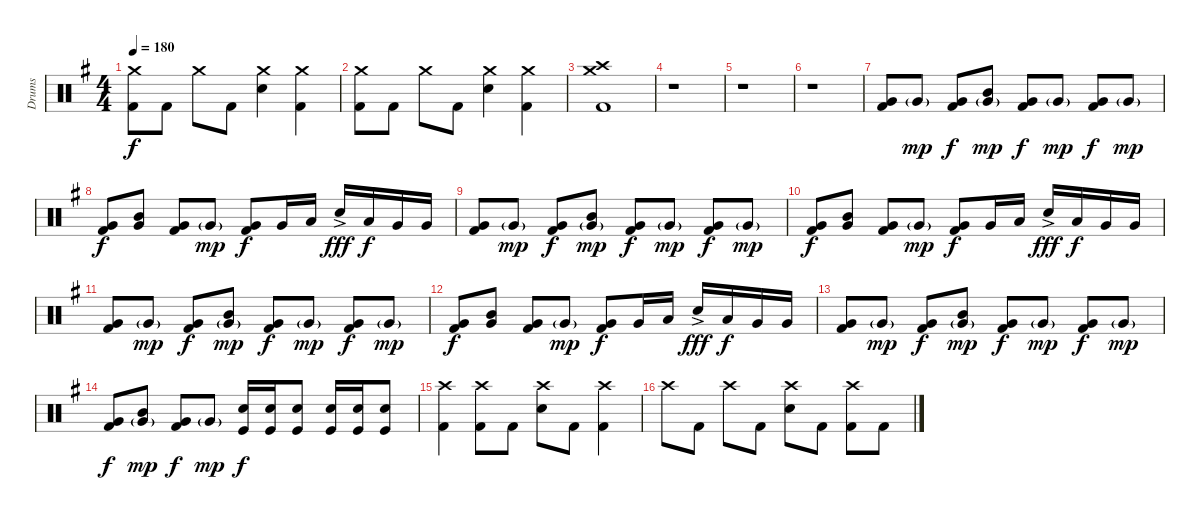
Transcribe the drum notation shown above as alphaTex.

\track ("Drums" "Drums") {instrument percussion}
\staff {score}
\articulation defaults
\ts (4 4)
\tempo 180
\clef neutral
\ks g
("Crash medium (hit)" "Kick (hit) 2").8{dy f} "Kick (hit) 2".8 "Crash medium (hit)".8 "Kick (hit) 2".8 ("Crash medium (hit)" "Electric Snare (hit)").4 ("Crash medium (hit)" "Kick (hit) 2").4 |
("Crash medium (hit)" "Kick (hit) 2").8 "Kick (hit) 2".8 "Crash medium (hit)".8 "Kick (hit) 2".8 ("Crash medium (hit)" "Electric Snare (hit)").4 ("Crash medium (hit)" "Kick (hit) 2").4 |
("Crash high (hit)" "Crash medium (hit)" "Kick (hit) 2").1 |
r.1 |
r.1 |
r.1 |
("Very Low Tom (hit)" "Kick (hit) 2").8 "Very Low Tom (hit)"{g}.8{dy mp} ("Very Low Tom (hit)" "Kick (hit) 2").8{dy f} ("Very Low Tom (hit)"{g} "Mid Tom (hit)").8{dy mp} ("Very Low Tom (hit)" "Kick (hit) 2").8{dy f} "Very Low Tom (hit)"{g}.8{dy mp} ("Very Low Tom (hit)" "Kick (hit) 2").8{dy f} "Very Low Tom (hit)"{g}.8{dy mp} |
("Very Low Tom (hit)" "Kick (hit) 2").8{dy f} ("Very Low Tom (hit)" "Mid Tom (hit)").8 ("Very Low Tom (hit)" "Kick (hit) 2").8 "Very Low Tom (hit)"{g}.8{dy mp} ("Very Low Tom (hit)" "Kick (hit) 2").8{dy f} "Very Low Tom (hit)".16 "Low Tom (hit)".16 "Electric Snare (hit)"{ac}.16{dy fff} "Low Tom (hit)".16{dy f} "Very Low Tom (hit)".16 "Very Low Tom (hit)".16 |
("Very Low Tom (hit)" "Kick (hit) 2").8 "Very Low Tom (hit)"{g}.8{dy mp} ("Very Low Tom (hit)" "Kick (hit) 2").8{dy f} ("Very Low Tom (hit)"{g} "Mid Tom (hit)").8{dy mp} ("Very Low Tom (hit)" "Kick (hit) 2").8{dy f} "Very Low Tom (hit)"{g}.8{dy mp} ("Very Low Tom (hit)" "Kick (hit) 2").8{dy f} "Very Low Tom (hit)"{g}.8{dy mp} |
("Very Low Tom (hit)" "Kick (hit) 2").8{dy f} ("Very Low Tom (hit)" "Mid Tom (hit)").8 ("Very Low Tom (hit)" "Kick (hit) 2").8 "Very Low Tom (hit)"{g}.8{dy mp} ("Very Low Tom (hit)" "Kick (hit) 2").8{dy f} "Very Low Tom (hit)".16 "Low Tom (hit)".16 "Electric Snare (hit)"{ac}.16{dy fff} "Low Tom (hit)".16{dy f} "Very Low Tom (hit)".16 "Very Low Tom (hit)".16 |
("Very Low Tom (hit)" "Kick (hit) 2").8 "Very Low Tom (hit)"{g}.8{dy mp} ("Very Low Tom (hit)" "Kick (hit) 2").8{dy f} ("Very Low Tom (hit)"{g} "Mid Tom (hit)").8{dy mp} ("Very Low Tom (hit)" "Kick (hit) 2").8{dy f} "Very Low Tom (hit)"{g}.8{dy mp} ("Very Low Tom (hit)" "Kick (hit) 2").8{dy f} "Very Low Tom (hit)"{g}.8{dy mp} |
("Very Low Tom (hit)" "Kick (hit) 2").8{dy f} ("Very Low Tom (hit)" "Mid Tom (hit)").8 ("Very Low Tom (hit)" "Kick (hit) 2").8 "Very Low Tom (hit)"{g}.8{dy mp} ("Very Low Tom (hit)" "Kick (hit) 2").8{dy f} "Very Low Tom (hit)".16 "Low Tom (hit)".16 "Electric Snare (hit)"{ac}.16{dy fff} "Low Tom (hit)".16{dy f} "Very Low Tom (hit)".16 "Very Low Tom (hit)".16 |
("Very Low Tom (hit)" "Kick (hit) 2").8 "Very Low Tom (hit)"{g}.8{dy mp} ("Very Low Tom (hit)" "Kick (hit) 2").8{dy f} ("Very Low Tom (hit)"{g} "Mid Tom (hit)").8{dy mp} ("Very Low Tom (hit)" "Kick (hit) 2").8{dy f} "Very Low Tom (hit)"{g}.8{dy mp} ("Very Low Tom (hit)" "Kick (hit) 2").8{dy f} "Very Low Tom (hit)"{g}.8{dy mp} |
("Very Low Tom (hit)" "Kick (hit) 2").8{dy f} ("Very Low Tom (hit)"{g} "Mid Tom (hit)").8{dy mp} ("Very Low Tom (hit)" "Kick (hit) 2").8{dy f} "Very Low Tom (hit)"{g}.8{dy mp} ("Electric Snare (hit)" "Kick (hit)").16{dy f} ("Electric Snare (hit)" "Kick (hit)").16 ("Electric Snare (hit)" "Kick (hit)").8 ("Electric Snare (hit)" "Kick (hit)").16 ("Electric Snare (hit)" "Kick (hit)").16 ("Electric Snare (hit)" "Kick (hit)").8 |
("Crash high (hit)" "Kick (hit) 2").4 ("Crash high (hit)" "Kick (hit) 2").8 "Kick (hit) 2".8 ("Crash high (hit)" "Electric Snare (hit)").8 "Kick (hit) 2".8 ("Crash high (hit)" "Kick (hit) 2").4 |
"Crash high (hit)".8 "Kick (hit) 2".8 "Crash high (hit)".8 "Kick (hit) 2".8 ("Crash high (hit)" "Electric Snare (hit)").8 "Kick (hit) 2".8 ("Crash high (hit)" "Kick (hit) 2").8 "Kick (hit) 2".8
